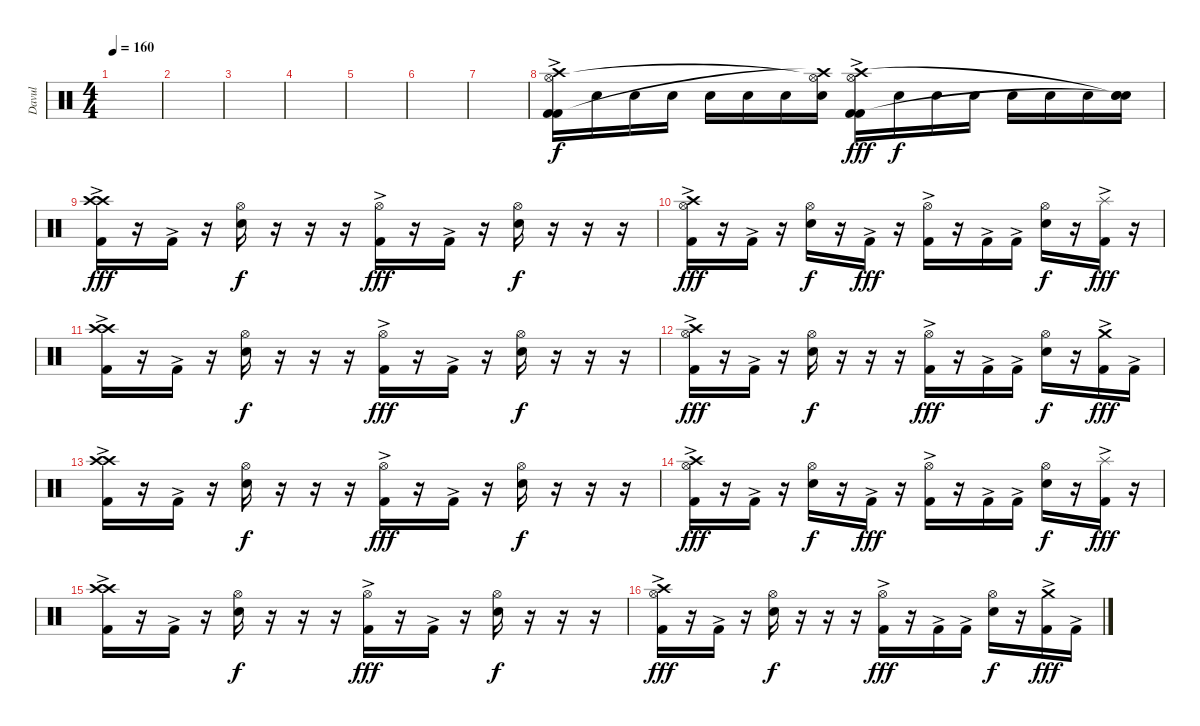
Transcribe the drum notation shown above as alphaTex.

\track ("Davul" "Davul") {instrument percussion}
\staff {score}
\articulation defaults
\ts (4 4)
\tempo 160
\clef neutral
\ks c
|
|
|
|
|
|
|
("Kick (hit) 2"{ac} "Kick (hit) 2"{ac} "Hi-Hat (open)"{ac} "Crash high (hit)"{ac}).16 "Electric Snare (hit)".16{dy f} "Electric Snare (hit)".16 "Electric Snare (hit)".16 "Electric Snare (hit)".16 "Electric Snare (hit)".16 "Electric Snare (hit)".16 ("Electric Snare (hit)" "Crash high (hit)"{t} "Hi-Hat (open)"{t}).16 ("Kick (hit) 2"{ac} "Kick (hit) 2"{ac} "Crash high (hit)"{ac} "Hi-Hat (open)"{ac}).16{dy fff} "Electric Snare (hit)".16{dy f} "Electric Snare (hit)".16 "Electric Snare (hit)".16 "Electric Snare (hit)".16 "Electric Snare (hit)".16 "Electric Snare (hit)".16 ("Electric Snare (hit)" "Snare (hit)"{t} "Snare (hit)"{t}).16 |
("Crash high (hit)" "Crash high (hit)" "Kick (hit) 2"{ac}).16{dy fff} r.16 "Kick (hit) 2"{ac}.16 r.16 ("Hi-Hat (open)" "Electric Snare (hit)").16{dy f} r.16 r.16 r.16 ("Hi-Hat (open)" "Kick (hit) 2"{ac}).16{dy fff} r.16 "Kick (hit) 2"{ac}.16 r.16 ("Hi-Hat (open)" "Electric Snare (hit)").16{dy f} r.16 r.16 r.16 |
("Crash high (hit)" "Hi-Hat (open)" "Kick (hit) 2"{ac}).16{dy fff} r.16 "Kick (hit) 2"{ac}.16 r.16 ("Hi-Hat (open)" "Electric Snare (hit)").16{dy f} r.16 "Kick (hit) 2"{ac}.16{dy fff} r.16 ("Hi-Hat (open)" "Kick (hit) 2"{ac}).16 r.16 "Kick (hit) 2"{ac}.16 "Kick (hit) 2"{ac}.16 ("Hi-Hat (open)" "Electric Snare (hit)").16{dy f} r.16 ("Splash (hit)" "Kick (hit) 2"{ac}).16{dy fff} r.16 |
("Crash high (hit)" "Crash high (hit)" "Kick (hit) 2"{ac}).16 r.16 "Kick (hit) 2"{ac}.16 r.16 ("Hi-Hat (open)" "Electric Snare (hit)").16{dy f} r.16 r.16 r.16 ("Hi-Hat (open)" "Kick (hit) 2"{ac}).16{dy fff} r.16 "Kick (hit) 2"{ac}.16 r.16 ("Hi-Hat (open)" "Electric Snare (hit)").16{dy f} r.16 r.16 r.16 |
("Crash high (hit)" "Hi-Hat (open)" "Kick (hit) 2"{ac}).16{dy fff} r.16 "Kick (hit) 2"{ac}.16 r.16 ("Hi-Hat (open)" "Electric Snare (hit)").16{dy f} r.16 r.16 r.16 ("Hi-Hat (open)" "Kick (hit) 2"{ac}).16{dy fff} r.16 "Kick (hit) 2"{ac}.16 "Kick (hit) 2"{ac}.16 ("Hi-Hat (open)" "Electric Snare (hit)").16{dy f} r.16 ("Crash medium (hit)" "Kick (hit) 2"{ac}).16{dy fff} "Kick (hit) 2"{ac}.16 |
("Crash high (hit)" "Crash high (hit)" "Kick (hit) 2"{ac}).16 r.16 "Kick (hit) 2"{ac}.16 r.16 ("Hi-Hat (open)" "Electric Snare (hit)").16{dy f} r.16 r.16 r.16 ("Hi-Hat (open)" "Kick (hit) 2"{ac}).16{dy fff} r.16 "Kick (hit) 2"{ac}.16 r.16 ("Hi-Hat (open)" "Electric Snare (hit)").16{dy f} r.16 r.16 r.16 |
("Crash high (hit)" "Hi-Hat (open)" "Kick (hit) 2"{ac}).16{dy fff} r.16 "Kick (hit) 2"{ac}.16 r.16 ("Hi-Hat (open)" "Electric Snare (hit)").16{dy f} r.16 "Kick (hit) 2"{ac}.16{dy fff} r.16 ("Hi-Hat (open)" "Kick (hit) 2"{ac}).16 r.16 "Kick (hit) 2"{ac}.16 "Kick (hit) 2"{ac}.16 ("Hi-Hat (open)" "Electric Snare (hit)").16{dy f} r.16 ("Splash (hit)" "Kick (hit) 2"{ac}).16{dy fff} r.16 |
("Crash high (hit)" "Crash high (hit)" "Kick (hit) 2"{ac}).16 r.16 "Kick (hit) 2"{ac}.16 r.16 ("Hi-Hat (open)" "Electric Snare (hit)").16{dy f} r.16 r.16 r.16 ("Hi-Hat (open)" "Kick (hit) 2"{ac}).16{dy fff} r.16 "Kick (hit) 2"{ac}.16 r.16 ("Hi-Hat (open)" "Electric Snare (hit)").16{dy f} r.16 r.16 r.16 |
("Crash high (hit)" "Hi-Hat (open)" "Kick (hit) 2"{ac}).16{dy fff} r.16 "Kick (hit) 2"{ac}.16 r.16 ("Hi-Hat (open)" "Electric Snare (hit)").16{dy f} r.16 r.16 r.16 ("Hi-Hat (open)" "Kick (hit) 2"{ac}).16{dy fff} r.16 "Kick (hit) 2"{ac}.16 "Kick (hit) 2"{ac}.16 ("Hi-Hat (open)" "Electric Snare (hit)").16{dy f} r.16 ("Crash medium (hit)" "Kick (hit) 2"{ac}).16{dy fff} "Kick (hit) 2"{ac}.16
